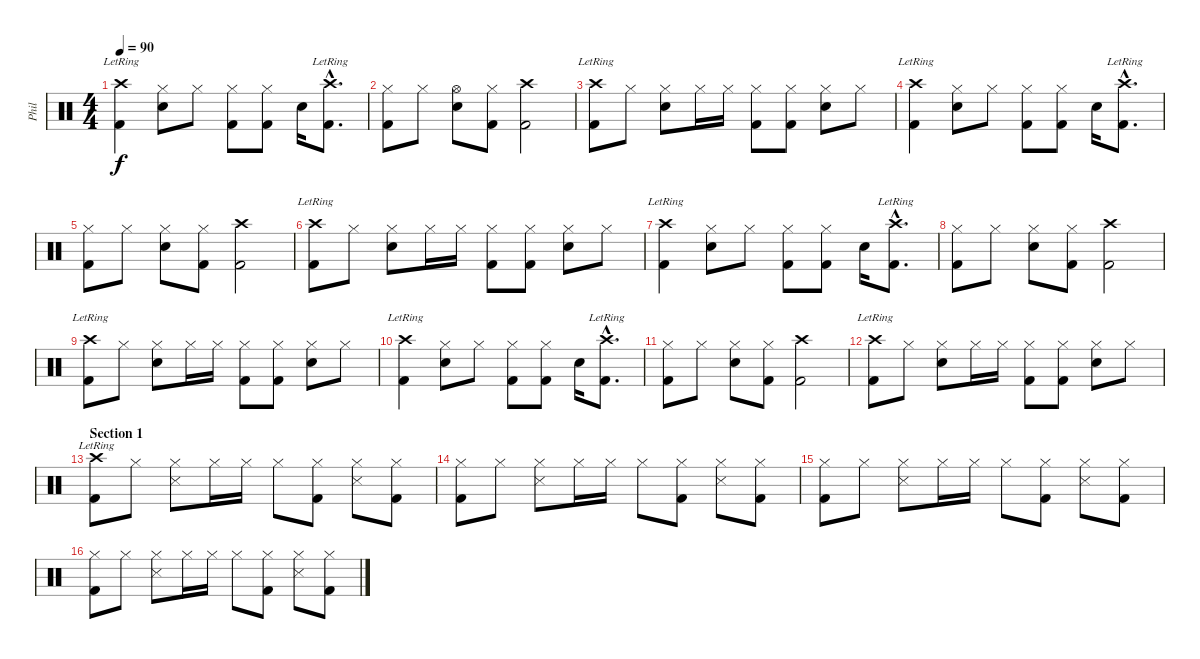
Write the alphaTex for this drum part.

\track ("Phil" "Phil") {instrument percussion}
\staff {score}
\articulation defaults
\ts (4 4)
\tempo 90
\clef neutral
\ks c
("Kick (hit) 2" "Crash high (hit)"{lr}).4{dy f} ("Snare (hit) 2" "Hi-Hat (closed)").8 "Hi-Hat (closed)".8 ("Kick (hit) 2" "Hi-Hat (closed)").8 ("Kick (hit) 2" "Hi-Hat (closed)").8 "Snare (hit) 2".16 ("Kick (hit) 2"{hac} "Crash high (hit)"{hac lr}).8{d} |
("Kick (hit) 2" "Hi-Hat (closed)").8 "Hi-Hat (closed)".8 ("Snare (hit) 2" "Hi-Hat (open)").8 ("Kick (hit) 2" "Hi-Hat (closed)").8 ("Kick (hit) 2" "Crash high (hit)").2 |
("Kick (hit) 2" "Crash high (hit)"{lr}).8 "Hi-Hat (closed)".8 ("Snare (hit) 2" "Hi-Hat (closed)").8 "Hi-Hat (closed)".16 "Hi-Hat (closed)".16 ("Kick (hit) 2" "Hi-Hat (closed)").8 ("Kick (hit) 2" "Hi-Hat (closed)").8 ("Snare (hit) 2" "Hi-Hat (closed)").8 "Hi-Hat (closed)".8 |
("Kick (hit) 2" "Crash high (hit)"{lr}).4 ("Snare (hit) 2" "Hi-Hat (closed)").8 "Hi-Hat (closed)".8 ("Kick (hit) 2" "Hi-Hat (closed)").8 ("Kick (hit) 2" "Hi-Hat (closed)").8 "Snare (hit) 2".16 ("Kick (hit) 2"{hac} "Crash high (hit)"{hac lr}).8{d} |
("Kick (hit) 2" "Hi-Hat (closed)").8 "Hi-Hat (closed)".8 ("Snare (hit) 2" "Hi-Hat (closed)").8 ("Kick (hit) 2" "Hi-Hat (closed)").8 ("Kick (hit) 2" "Crash high (hit)").2 |
("Kick (hit) 2" "Crash high (hit)"{lr}).8 "Hi-Hat (closed)".8 ("Snare (hit) 2" "Hi-Hat (closed)").8 "Hi-Hat (closed)".16 "Hi-Hat (closed)".16 ("Kick (hit) 2" "Hi-Hat (closed)").8 ("Kick (hit) 2" "Hi-Hat (closed)").8 ("Snare (hit) 2" "Hi-Hat (closed)").8 "Hi-Hat (closed)".8 |
("Kick (hit) 2" "Crash high (hit)"{lr}).4 ("Snare (hit) 2" "Hi-Hat (closed)").8 "Hi-Hat (closed)".8 ("Kick (hit) 2" "Hi-Hat (closed)").8 ("Kick (hit) 2" "Hi-Hat (closed)").8 "Snare (hit) 2".16 ("Kick (hit) 2"{hac} "Crash high (hit)"{hac lr}).8{d} |
("Kick (hit) 2" "Hi-Hat (closed)").8 "Hi-Hat (closed)".8 ("Snare (hit) 2" "Hi-Hat (closed)").8 ("Kick (hit) 2" "Hi-Hat (closed)").8 ("Kick (hit) 2" "Crash high (hit)").2 |
("Kick (hit) 2" "Crash high (hit)"{lr}).8 "Hi-Hat (closed)".8 ("Snare (hit) 2" "Hi-Hat (closed)").8 "Hi-Hat (closed)".16 "Hi-Hat (closed)".16 ("Kick (hit) 2" "Hi-Hat (closed)").8 ("Kick (hit) 2" "Hi-Hat (closed)").8 ("Snare (hit) 2" "Hi-Hat (closed)").8 "Hi-Hat (closed)".8 |
("Kick (hit) 2" "Crash high (hit)"{lr}).4 ("Snare (hit) 2" "Hi-Hat (closed)").8 "Hi-Hat (closed)".8 ("Kick (hit) 2" "Hi-Hat (closed)").8 ("Kick (hit) 2" "Hi-Hat (closed)").8 "Snare (hit) 2".16 ("Kick (hit) 2"{hac} "Crash high (hit)"{hac lr}).8{d} |
("Kick (hit) 2" "Hi-Hat (closed)").8 "Hi-Hat (closed)".8 ("Snare (hit) 2" "Hi-Hat (closed)").8 ("Kick (hit) 2" "Hi-Hat (closed)").8 ("Kick (hit) 2" "Crash high (hit)").2 |
("Kick (hit) 2" "Crash high (hit)"{lr}).8 "Hi-Hat (closed)".8 ("Snare (hit) 2" "Hi-Hat (closed)").8 "Hi-Hat (closed)".16 "Hi-Hat (closed)".16 ("Kick (hit) 2" "Hi-Hat (closed)").8 ("Kick (hit) 2" "Hi-Hat (closed)").8 ("Snare (hit) 2" "Hi-Hat (closed)").8 "Hi-Hat (closed)".8 |
\section ("" "Section 1")
("Kick (hit) 2" "Crash high (hit)"{lr}).8 "Hi-Hat (closed)".8 ("Snare (side stick) 3" "Hi-Hat (closed)").8 "Hi-Hat (closed)".16 "Hi-Hat (closed)".16 "Hi-Hat (closed)".8 ("Kick (hit) 2" "Hi-Hat (closed)").8 ("Snare (side stick) 3" "Hi-Hat (closed)").8 ("Kick (hit) 2" "Hi-Hat (closed)").8 |
("Kick (hit) 2" "Hi-Hat (closed)").8 "Hi-Hat (closed)".8 ("Snare (side stick) 3" "Hi-Hat (closed)").8 "Hi-Hat (closed)".16 "Hi-Hat (closed)".16 "Hi-Hat (closed)".8 ("Kick (hit) 2" "Hi-Hat (closed)").8 ("Snare (side stick) 3" "Hi-Hat (closed)").8 ("Kick (hit) 2" "Hi-Hat (closed)").8 |
("Kick (hit) 2" "Hi-Hat (closed)").8 "Hi-Hat (closed)".8 ("Snare (side stick) 3" "Hi-Hat (closed)").8 "Hi-Hat (closed)".16 "Hi-Hat (closed)".16 "Hi-Hat (closed)".8 ("Kick (hit) 2" "Hi-Hat (closed)").8 ("Snare (side stick) 3" "Hi-Hat (closed)").8 ("Kick (hit) 2" "Hi-Hat (closed)").8 |
("Kick (hit) 2" "Hi-Hat (closed)").8 "Hi-Hat (closed)".8 ("Snare (side stick) 3" "Hi-Hat (closed)").8 "Hi-Hat (closed)".16 "Hi-Hat (closed)".16 "Hi-Hat (closed)".8 ("Kick (hit) 2" "Hi-Hat (closed)").8 ("Snare (side stick) 3" "Hi-Hat (closed)").8 ("Kick (hit) 2" "Hi-Hat (closed)").8
